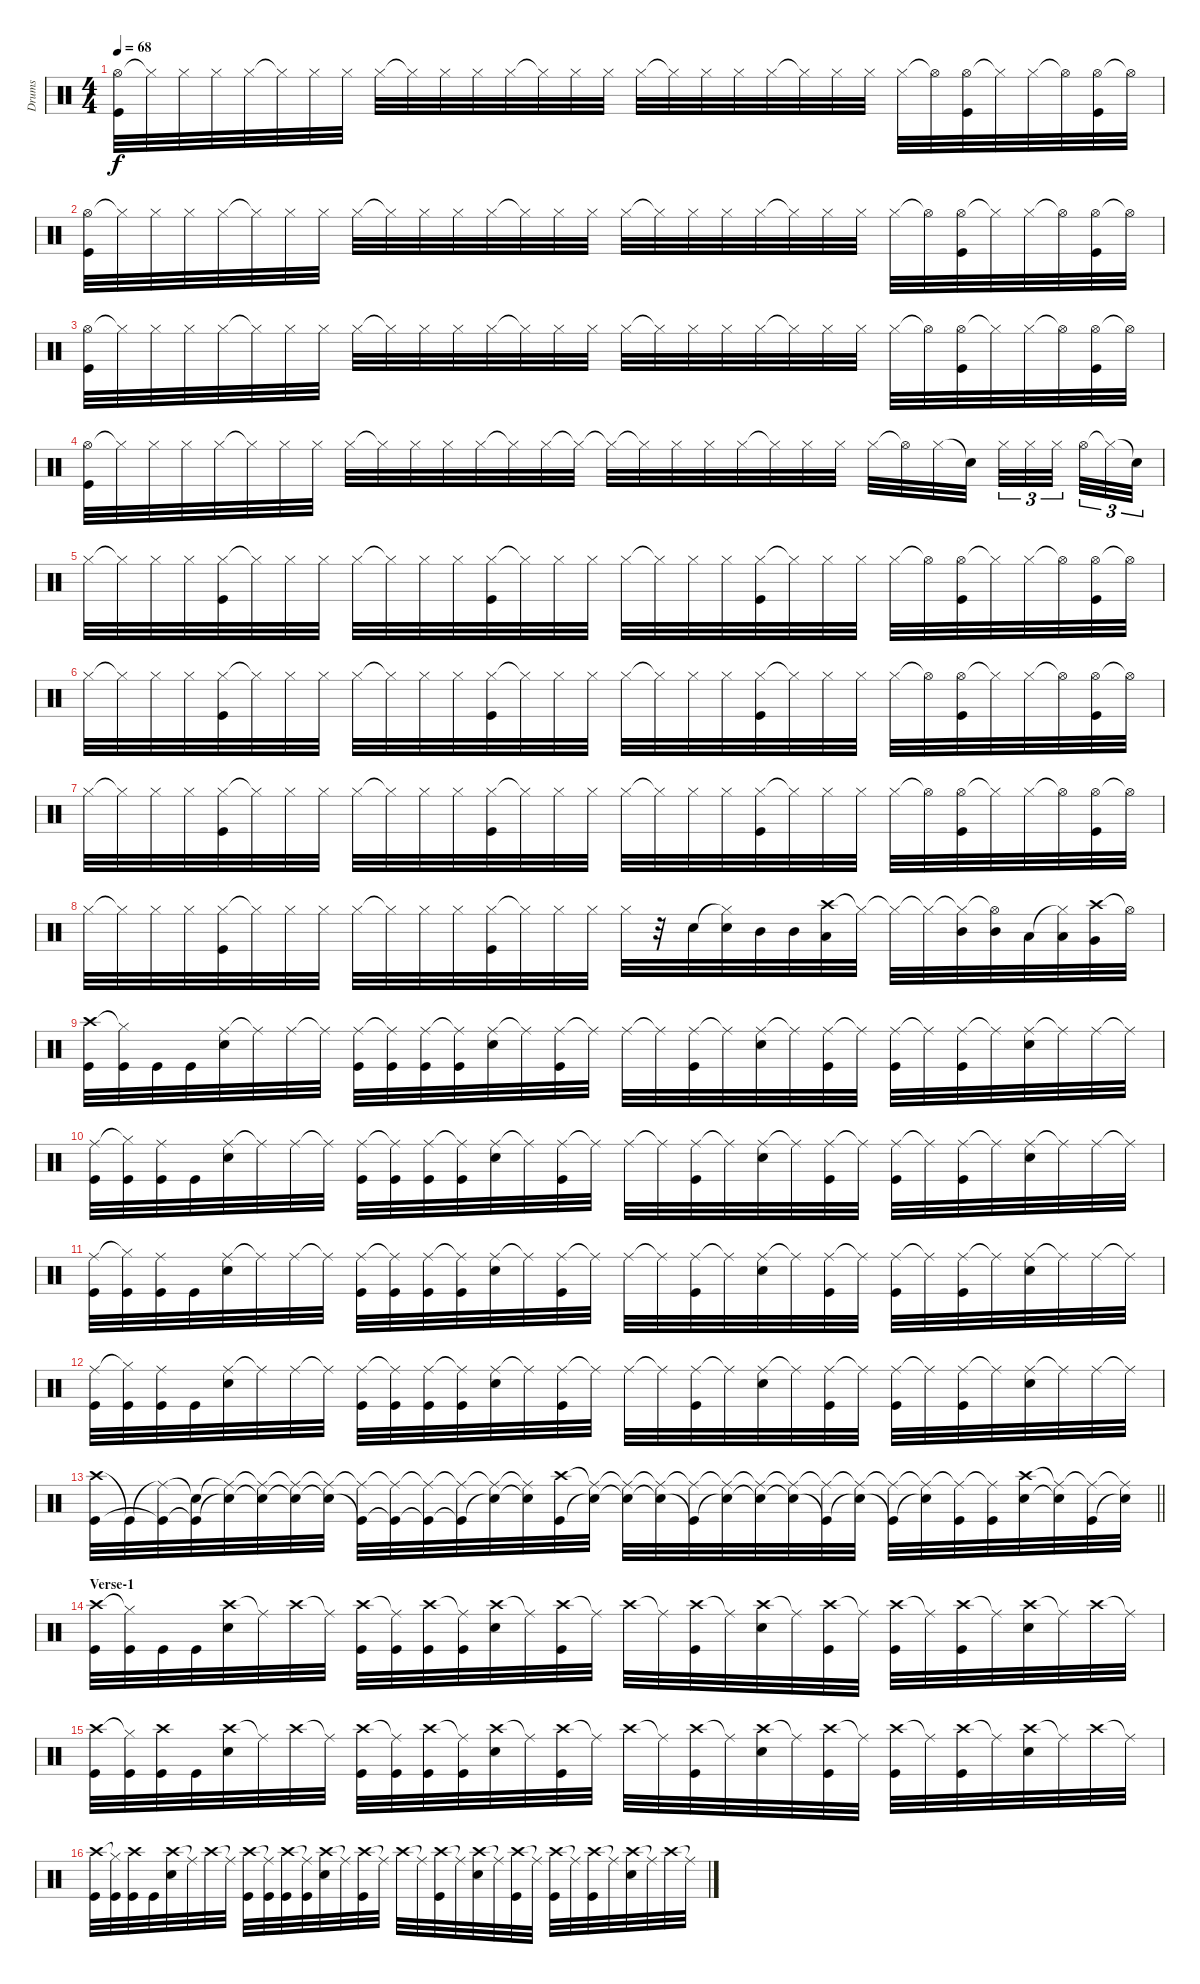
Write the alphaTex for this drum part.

\track ("Drums" "Drums") {instrument percussion}
\staff {score}
\articulation defaults
\ts (4 4)
\tempo 68
\clef neutral
\ks c
("Hi-Hat (open)" "Kick (hit)").32{dy f} "Hi-Hat (closed)"{t}.32 "Hi-Hat (closed)".32 "Hi-Hat (closed)".32 "Hi-Hat (closed)".32 "Hi-Hat (closed)"{t}.32 "Hi-Hat (closed)".32 "Hi-Hat (closed)".32 "Hi-Hat (closed)".32 "Hi-Hat (closed)"{t}.32 "Hi-Hat (closed)".32 "Hi-Hat (closed)".32 "Hi-Hat (closed)".32 "Hi-Hat (closed)"{t}.32 "Hi-Hat (closed)".32 "Hi-Hat (closed)".32 "Hi-Hat (closed)".32 "Hi-Hat (closed)"{t}.32 "Hi-Hat (closed)".32 "Hi-Hat (closed)".32 "Hi-Hat (closed)".32 "Hi-Hat (closed)"{t}.32 "Hi-Hat (closed)".32 "Hi-Hat (closed)".32 "Hi-Hat (closed)".32 "Hi-Hat (open)"{t}.32 ("Hi-Hat (open)" "Kick (hit)").32 "Hi-Hat (closed)"{t}.32 "Hi-Hat (closed)".32 "Hi-Hat (open)"{t}.32 ("Hi-Hat (open)" "Kick (hit)").32 "Hi-Hat (open)"{t}.32 |
("Hi-Hat (open)" "Kick (hit)").32 "Hi-Hat (closed)"{t}.32 "Hi-Hat (closed)".32 "Hi-Hat (closed)".32 "Hi-Hat (closed)".32 "Hi-Hat (closed)"{t}.32 "Hi-Hat (closed)".32 "Hi-Hat (closed)".32 "Hi-Hat (closed)".32 "Hi-Hat (closed)"{t}.32 "Hi-Hat (closed)".32 "Hi-Hat (closed)".32 "Hi-Hat (closed)".32 "Hi-Hat (closed)"{t}.32 "Hi-Hat (closed)".32 "Hi-Hat (closed)".32 "Hi-Hat (closed)".32 "Hi-Hat (closed)"{t}.32 "Hi-Hat (closed)".32 "Hi-Hat (closed)".32 "Hi-Hat (closed)".32 "Hi-Hat (closed)"{t}.32 "Hi-Hat (closed)".32 "Hi-Hat (closed)".32 "Hi-Hat (closed)".32 "Hi-Hat (open)"{t}.32 ("Hi-Hat (open)" "Kick (hit)").32 "Hi-Hat (closed)"{t}.32 "Hi-Hat (closed)".32 "Hi-Hat (open)"{t}.32 ("Hi-Hat (open)" "Kick (hit)").32 "Hi-Hat (open)"{t}.32 |
("Hi-Hat (open)" "Kick (hit)").32 "Hi-Hat (closed)"{t}.32 "Hi-Hat (closed)".32 "Hi-Hat (closed)".32 "Hi-Hat (closed)".32 "Hi-Hat (closed)"{t}.32 "Hi-Hat (closed)".32 "Hi-Hat (closed)".32 "Hi-Hat (closed)".32 "Hi-Hat (closed)"{t}.32 "Hi-Hat (closed)".32 "Hi-Hat (closed)".32 "Hi-Hat (closed)".32 "Hi-Hat (closed)"{t}.32 "Hi-Hat (closed)".32 "Hi-Hat (closed)".32 "Hi-Hat (closed)".32 "Hi-Hat (closed)"{t}.32 "Hi-Hat (closed)".32 "Hi-Hat (closed)".32 "Hi-Hat (closed)".32 "Hi-Hat (closed)"{t}.32 "Hi-Hat (closed)".32 "Hi-Hat (closed)".32 "Hi-Hat (closed)".32 "Hi-Hat (open)"{t}.32 ("Hi-Hat (open)" "Kick (hit)").32 "Hi-Hat (closed)"{t}.32 "Hi-Hat (closed)".32 "Hi-Hat (open)"{t}.32 ("Hi-Hat (open)" "Kick (hit)").32 "Hi-Hat (open)"{t}.32 |
("Hi-Hat (open)" "Kick (hit)").32 "Hi-Hat (closed)"{t}.32 "Hi-Hat (closed)".32 "Hi-Hat (closed)".32 "Hi-Hat (closed)".32 "Hi-Hat (closed)"{t}.32 "Hi-Hat (closed)".32 "Hi-Hat (closed)".32 "Hi-Hat (closed)".32 "Hi-Hat (closed)"{t}.32 "Hi-Hat (closed)".32 "Hi-Hat (closed)".32 "Hi-Hat (closed)".32 "Hi-Hat (closed)"{t}.32 "Hi-Hat (closed)".32 "Hi-Hat (closed)"{t}.32 "Hi-Hat (closed)"{t}.32 "Hi-Hat (closed)"{t}.32 "Hi-Hat (closed)".32 "Hi-Hat (closed)".32 "Hi-Hat (closed)".32 "Hi-Hat (closed)"{t}.32 "Hi-Hat (closed)".32 "Hi-Hat (closed)".32 "Hi-Hat (closed)".32 "Hi-Hat (open)"{t}.32 "Hi-Hat (closed)".32 "Snare (hit)"{t}.32 "Hi-Hat (closed)".32{tu (3 2)} "Hi-Hat (closed)".32{tu (3 2)} "Hi-Hat (closed)".32{tu (3 2)} "Hi-Hat (open)".32{tu (3 2)} "Hi-Hat (closed)"{t}.32{tu (3 2)} "Snare (hit)"{t}.32{tu (3 2)} |
"Hi-Hat (closed)".32 "Hi-Hat (closed)"{t}.32 "Hi-Hat (closed)".32 "Hi-Hat (closed)".32 ("Hi-Hat (closed)" "Kick (hit)").32 "Hi-Hat (closed)"{t}.32 "Hi-Hat (closed)".32 "Hi-Hat (closed)".32 "Hi-Hat (closed)".32 "Hi-Hat (closed)"{t}.32 "Hi-Hat (closed)".32 "Hi-Hat (closed)".32 ("Hi-Hat (closed)" "Kick (hit)").32 "Hi-Hat (closed)"{t}.32 "Hi-Hat (closed)".32 "Hi-Hat (closed)".32 "Hi-Hat (closed)".32 "Hi-Hat (closed)"{t}.32 "Hi-Hat (closed)".32 "Hi-Hat (closed)".32 ("Hi-Hat (closed)" "Kick (hit)").32 "Hi-Hat (closed)"{t}.32 "Hi-Hat (closed)".32 "Hi-Hat (closed)".32 "Hi-Hat (closed)".32 "Hi-Hat (open)"{t}.32 ("Hi-Hat (open)" "Kick (hit)").32 "Hi-Hat (closed)"{t}.32 "Hi-Hat (closed)".32 "Hi-Hat (open)"{t}.32 ("Hi-Hat (open)" "Kick (hit)").32 "Hi-Hat (open)"{t}.32 |
"Hi-Hat (closed)".32 "Hi-Hat (closed)"{t}.32 "Hi-Hat (closed)".32 "Hi-Hat (closed)".32 ("Hi-Hat (closed)" "Kick (hit)").32 "Hi-Hat (closed)"{t}.32 "Hi-Hat (closed)".32 "Hi-Hat (closed)".32 "Hi-Hat (closed)".32 "Hi-Hat (closed)"{t}.32 "Hi-Hat (closed)".32 "Hi-Hat (closed)".32 ("Hi-Hat (closed)" "Kick (hit)").32 "Hi-Hat (closed)"{t}.32 "Hi-Hat (closed)".32 "Hi-Hat (closed)".32 "Hi-Hat (closed)".32 "Hi-Hat (closed)"{t}.32 "Hi-Hat (closed)".32 "Hi-Hat (closed)".32 ("Hi-Hat (closed)" "Kick (hit)").32 "Hi-Hat (closed)"{t}.32 "Hi-Hat (closed)".32 "Hi-Hat (closed)".32 "Hi-Hat (closed)".32 "Hi-Hat (open)"{t}.32 ("Hi-Hat (open)" "Kick (hit)").32 "Hi-Hat (closed)"{t}.32 "Hi-Hat (closed)".32 "Hi-Hat (open)"{t}.32 ("Hi-Hat (open)" "Kick (hit)").32 "Hi-Hat (open)"{t}.32 |
"Hi-Hat (closed)".32 "Hi-Hat (closed)"{t}.32 "Hi-Hat (closed)".32 "Hi-Hat (closed)".32 ("Hi-Hat (closed)" "Kick (hit)").32 "Hi-Hat (closed)"{t}.32 "Hi-Hat (closed)".32 "Hi-Hat (closed)".32 "Hi-Hat (closed)".32 "Hi-Hat (closed)"{t}.32 "Hi-Hat (closed)".32 "Hi-Hat (closed)".32 ("Hi-Hat (closed)" "Kick (hit)").32 "Hi-Hat (closed)"{t}.32 "Hi-Hat (closed)".32 "Hi-Hat (closed)".32 "Hi-Hat (closed)".32 "Hi-Hat (closed)"{t}.32 "Hi-Hat (closed)".32 "Hi-Hat (closed)".32 ("Hi-Hat (closed)" "Kick (hit)").32 "Hi-Hat (closed)"{t}.32 "Hi-Hat (closed)".32 "Hi-Hat (closed)".32 "Hi-Hat (closed)".32 "Hi-Hat (open)"{t}.32 ("Hi-Hat (open)" "Kick (hit)").32 "Hi-Hat (closed)"{t}.32 "Hi-Hat (closed)".32 "Hi-Hat (open)"{t}.32 ("Hi-Hat (open)" "Kick (hit)").32 "Hi-Hat (open)"{t}.32 |
"Hi-Hat (closed)".32 "Hi-Hat (closed)"{t}.32 "Hi-Hat (closed)".32 "Hi-Hat (closed)".32 ("Hi-Hat (closed)" "Kick (hit)").32 "Hi-Hat (closed)"{t}.32 "Hi-Hat (closed)".32 "Hi-Hat (closed)".32 "Hi-Hat (closed)".32 "Hi-Hat (closed)"{t}.32 "Hi-Hat (closed)".32 "Hi-Hat (closed)".32 ("Hi-Hat (closed)" "Kick (hit)").32 "Hi-Hat (closed)"{t}.32 "Hi-Hat (closed)".32 "Hi-Hat (closed)".32 "Hi-Hat (closed)".32 r.32 "Electric Snare (hit)".32 ("Hi-Hat (closed)"{t} "Electric Snare (hit)").32 "Mid Tom (hit)".32 "Mid Tom (hit)".32 ("Crash high (hit)" "Low Tom (hit)").32 "Hi-Hat (closed)"{t}.32 "Hi-Hat (closed)"{t}.32 "Hi-Hat (closed)"{t}.32 ("Hi-Hat (closed)"{t} "Mid Tom (hit)").32 ("Hi-Hat (open)"{t} "Mid Tom (hit)").32 "Low Tom (hit)".32 ("Hi-Hat (closed)"{t} "Low Tom (hit)").32 ("Crash high (hit)" "Very Low Tom (hit)").32 "Hi-Hat (open)"{t}.32 |
("Crash high (hit)" "Kick (hit)").32 ("Hi-Hat (closed)"{t} "Kick (hit)").32 "Kick (hit)".32 "Kick (hit)".32 ("Ride (middle)" "Electric Snare (hit)").32 "Ride (middle)"{t}.32 "Ride (middle)".32 "Ride (middle)"{t}.32 ("Ride (middle)" "Kick (hit)").32 ("Ride (middle)"{t} "Kick (hit)").32 ("Ride (middle)" "Kick (hit)").32 ("Ride (middle)"{t} "Kick (hit)").32 ("Ride (middle)" "Electric Snare (hit)").32 "Ride (middle)"{t}.32 ("Ride (middle)" "Kick (hit)").32 "Ride (middle)"{t}.32 "Ride (middle)".32 "Ride (middle)"{t}.32 ("Ride (middle)" "Kick (hit)").32 "Ride (middle)"{t}.32 ("Ride (middle)" "Electric Snare (hit)").32 "Ride (middle)"{t}.32 ("Ride (middle)" "Kick (hit)").32 "Ride (middle)"{t}.32 ("Ride (middle)" "Kick (hit)").32 "Ride (middle)"{t}.32 ("Ride (middle)" "Kick (hit)").32 "Ride (middle)"{t}.32 ("Ride (middle)" "Electric Snare (hit)").32 "Ride (middle)"{t}.32 "Ride (middle)".32 "Ride (middle)"{t}.32 |
("Ride (middle)" "Kick (hit)").32 ("Hi-Hat (closed)"{t} "Kick (hit)").32 ("Ride (middle)" "Kick (hit)").32 "Kick (hit)".32 ("Ride (middle)" "Electric Snare (hit)").32 "Ride (middle)"{t}.32 "Ride (middle)".32 "Ride (middle)"{t}.32 ("Ride (middle)" "Kick (hit)").32 ("Ride (middle)"{t} "Kick (hit)").32 ("Ride (middle)" "Kick (hit)").32 ("Ride (middle)"{t} "Kick (hit)").32 ("Ride (middle)" "Electric Snare (hit)").32 "Ride (middle)"{t}.32 ("Ride (middle)" "Kick (hit)").32 "Ride (middle)"{t}.32 "Ride (middle)".32 "Ride (middle)"{t}.32 ("Ride (middle)" "Kick (hit)").32 "Ride (middle)"{t}.32 ("Ride (middle)" "Electric Snare (hit)").32 "Ride (middle)"{t}.32 ("Ride (middle)" "Kick (hit)").32 "Ride (middle)"{t}.32 ("Ride (middle)" "Kick (hit)").32 "Ride (middle)"{t}.32 ("Ride (middle)" "Kick (hit)").32 "Ride (middle)"{t}.32 ("Ride (middle)" "Electric Snare (hit)").32 "Ride (middle)"{t}.32 "Ride (middle)".32 "Ride (middle)"{t}.32 |
("Ride (middle)" "Kick (hit)").32 ("Hi-Hat (closed)"{t} "Kick (hit)").32 ("Ride (middle)" "Kick (hit)").32 "Kick (hit)".32 ("Ride (middle)" "Electric Snare (hit)").32 "Ride (middle)"{t}.32 "Ride (middle)".32 "Ride (middle)"{t}.32 ("Ride (middle)" "Kick (hit)").32 ("Ride (middle)"{t} "Kick (hit)").32 ("Ride (middle)" "Kick (hit)").32 ("Ride (middle)"{t} "Kick (hit)").32 ("Ride (middle)" "Electric Snare (hit)").32 "Ride (middle)"{t}.32 ("Ride (middle)" "Kick (hit)").32 "Ride (middle)"{t}.32 "Ride (middle)".32 "Ride (middle)"{t}.32 ("Ride (middle)" "Kick (hit)").32 "Ride (middle)"{t}.32 ("Ride (middle)" "Electric Snare (hit)").32 "Ride (middle)"{t}.32 ("Ride (middle)" "Kick (hit)").32 "Ride (middle)"{t}.32 ("Ride (middle)" "Kick (hit)").32 "Ride (middle)"{t}.32 ("Ride (middle)" "Kick (hit)").32 "Ride (middle)"{t}.32 ("Ride (middle)" "Electric Snare (hit)").32 "Ride (middle)"{t}.32 "Ride (middle)".32 "Ride (middle)"{t}.32 |
("Ride (middle)" "Kick (hit)").32 ("Hi-Hat (closed)"{t} "Kick (hit)").32 ("Ride (middle)" "Kick (hit)").32 "Kick (hit)".32 ("Ride (middle)" "Electric Snare (hit)").32 "Ride (middle)"{t}.32 "Ride (middle)".32 "Ride (middle)"{t}.32 ("Ride (middle)" "Kick (hit)").32 ("Ride (middle)"{t} "Kick (hit)").32 ("Ride (middle)" "Kick (hit)").32 ("Ride (middle)"{t} "Kick (hit)").32 ("Ride (middle)" "Electric Snare (hit)").32 "Ride (middle)"{t}.32 ("Ride (middle)" "Kick (hit)").32 "Ride (middle)"{t}.32 "Ride (middle)".32 "Ride (middle)"{t}.32 ("Ride (middle)" "Kick (hit)").32 "Ride (middle)"{t}.32 ("Ride (middle)" "Electric Snare (hit)").32 "Ride (middle)"{t}.32 ("Ride (middle)" "Kick (hit)").32 "Ride (middle)"{t}.32 ("Ride (middle)" "Kick (hit)").32 "Ride (middle)"{t}.32 ("Ride (middle)" "Kick (hit)").32 "Ride (middle)"{t}.32 ("Ride (middle)" "Electric Snare (hit)").32 "Ride (middle)"{t}.32 "Ride (middle)".32 "Ride (middle)"{t}.32 |
\barLineRight lightlight
("Crash high (hit)" "Kick (hit)").32 "Kick (hit)"{t}.32 ("Ride (middle)"{t} "Kick (hit)"{t}).32 ("Snare (hit)"{t} "Kick (hit)"{t}).32 ("Ride (middle)"{t} "Electric Snare (hit)"{t}).32 ("Ride (middle)"{t} "Snare (hit)"{t}).32 ("Ride (middle)"{t} "Snare (hit)"{t}).32 ("Ride (middle)"{t} "Snare (hit)"{t}).32 ("Ride (middle)"{t} "Kick (hit)"{t}).32 ("Ride (middle)"{t} "Kick (hit)"{t}).32 ("Ride (middle)"{t} "Kick (hit)"{t}).32 ("Ride (middle)"{t} "Kick (hit)"{t}).32 ("Ride (middle)"{t} "Electric Snare (hit)"{t}).32 ("Ride (middle)"{t} "Snare (hit)"{t}).32 ("Crash high (hit)" "Kick (hit)").32 ("Ride (middle)"{t} "Snare (hit)"{t}).32 ("Ride (middle)"{t} "Snare (hit)"{t}).32 ("Ride (middle)"{t} "Snare (hit)"{t}).32 ("Ride (middle)"{t} "Kick (hit)"{t}).32 ("Ride (middle)"{t} "Snare (hit)"{t}).32 ("Ride (middle)"{t} "Electric Snare (hit)"{t}).32 ("Ride (middle)"{t} "Snare (hit)"{t}).32 ("Ride (middle)"{t} "Kick (hit)"{t}).32 ("Ride (middle)"{t} "Snare (hit)"{t}).32 ("Ride (middle)"{t} "Kick (hit)"{t}).32 ("Ride (middle)"{t} "Snare (hit)"{t}).32 ("Ride (middle)"{t} "Kick (hit)").32 ("Ride (middle)"{t} "Kick (hit)").32 ("Crash high (hit)" "Electric Snare (hit)").32 ("Ride (middle)"{t} "Snare (hit)"{t}).32 ("Ride (middle)"{t} "Kick (hit)").32 ("Ride (middle)"{t} "Snare (hit)"{t}).32 |
\section ("" "Verse-1")
("Crash high (hit)" "Kick (hit)").32 ("Hi-Hat (closed)"{t} "Kick (hit)").32 "Kick (hit)".32 "Kick (hit)".32 ("Crash high (hit)" "Electric Snare (hit)").32 "Ride (middle)"{t}.32 "Crash high (hit)".32 "Ride (middle)"{t}.32 ("Crash high (hit)" "Kick (hit)").32 ("Ride (middle)"{t} "Kick (hit)").32 ("Crash high (hit)" "Kick (hit)").32 ("Ride (middle)"{t} "Kick (hit)").32 ("Crash high (hit)" "Electric Snare (hit)").32 "Ride (middle)"{t}.32 ("Crash high (hit)" "Kick (hit)").32 "Ride (middle)"{t}.32 "Crash high (hit)".32 "Ride (middle)"{t}.32 ("Crash high (hit)" "Kick (hit)").32 "Ride (middle)"{t}.32 ("Crash high (hit)" "Electric Snare (hit)").32 "Ride (middle)"{t}.32 ("Crash high (hit)" "Kick (hit)").32 "Ride (middle)"{t}.32 ("Crash high (hit)" "Kick (hit)").32 "Ride (middle)"{t}.32 ("Crash high (hit)" "Kick (hit)").32 "Ride (middle)"{t}.32 ("Crash high (hit)" "Electric Snare (hit)").32 "Ride (middle)"{t}.32 "Crash high (hit)".32 "Ride (middle)"{t}.32 |
("Crash high (hit)" "Kick (hit)").32 ("Hi-Hat (closed)"{t} "Kick (hit)").32 ("Crash high (hit)" "Kick (hit)").32 "Kick (hit)".32 ("Crash high (hit)" "Electric Snare (hit)").32 "Ride (middle)"{t}.32 "Crash high (hit)".32 "Ride (middle)"{t}.32 ("Crash high (hit)" "Kick (hit)").32 ("Ride (middle)"{t} "Kick (hit)").32 ("Crash high (hit)" "Kick (hit)").32 ("Ride (middle)"{t} "Kick (hit)").32 ("Crash high (hit)" "Electric Snare (hit)").32 "Ride (middle)"{t}.32 ("Crash high (hit)" "Kick (hit)").32 "Ride (middle)"{t}.32 "Crash high (hit)".32 "Ride (middle)"{t}.32 ("Crash high (hit)" "Kick (hit)").32 "Ride (middle)"{t}.32 ("Crash high (hit)" "Electric Snare (hit)").32 "Ride (middle)"{t}.32 ("Crash high (hit)" "Kick (hit)").32 "Ride (middle)"{t}.32 ("Crash high (hit)" "Kick (hit)").32 "Ride (middle)"{t}.32 ("Crash high (hit)" "Kick (hit)").32 "Ride (middle)"{t}.32 ("Crash high (hit)" "Electric Snare (hit)").32 "Ride (middle)"{t}.32 "Crash high (hit)".32 "Ride (middle)"{t}.32 |
("Crash high (hit)" "Kick (hit)").32 ("Hi-Hat (closed)"{t} "Kick (hit)").32 ("Crash high (hit)" "Kick (hit)").32 "Kick (hit)".32 ("Crash high (hit)" "Electric Snare (hit)").32 "Ride (middle)"{t}.32 "Crash high (hit)".32 "Ride (middle)"{t}.32 ("Crash high (hit)" "Kick (hit)").32 ("Ride (middle)"{t} "Kick (hit)").32 ("Crash high (hit)" "Kick (hit)").32 ("Ride (middle)"{t} "Kick (hit)").32 ("Crash high (hit)" "Electric Snare (hit)").32 "Ride (middle)"{t}.32 ("Crash high (hit)" "Kick (hit)").32 "Ride (middle)"{t}.32 "Crash high (hit)".32 "Ride (middle)"{t}.32 ("Crash high (hit)" "Kick (hit)").32 "Ride (middle)"{t}.32 ("Crash high (hit)" "Electric Snare (hit)").32 "Ride (middle)"{t}.32 ("Crash high (hit)" "Kick (hit)").32 "Ride (middle)"{t}.32 ("Crash high (hit)" "Kick (hit)").32 "Ride (middle)"{t}.32 ("Crash high (hit)" "Kick (hit)").32 "Ride (middle)"{t}.32 ("Crash high (hit)" "Electric Snare (hit)").32 "Ride (middle)"{t}.32 "Crash high (hit)".32 "Ride (middle)"{t}.32
